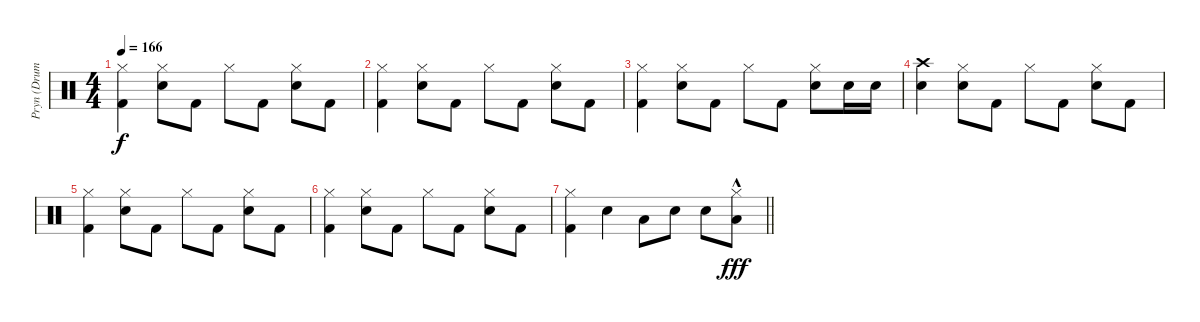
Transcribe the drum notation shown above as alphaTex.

\track ("Pryn (Drums)" "Pryn (Drum") {instrument percussion}
\staff {score}
\articulation defaults
\ts (4 4)
\tempo 166
\clef neutral
\ks c
("Hi-Hat (closed)" "Kick (hit) 2").4{dy f} ("Hi-Hat (closed)" "Snare (hit) 2").8 "Kick (hit) 2".8 "Hi-Hat (closed)".8 "Kick (hit) 2".8 ("Hi-Hat (closed)" "Snare (hit) 2").8 "Kick (hit) 2".8 |
("Hi-Hat (closed)" "Kick (hit) 2").4 ("Hi-Hat (closed)" "Snare (hit) 2").8 "Kick (hit) 2".8 "Hi-Hat (closed)".8 "Kick (hit) 2".8 ("Hi-Hat (closed)" "Snare (hit) 2").8 "Kick (hit) 2".8 |
("Hi-Hat (closed)" "Kick (hit) 2").4 ("Hi-Hat (closed)" "Snare (hit) 2").8 "Kick (hit) 2".8 "Hi-Hat (closed)".8 "Kick (hit) 2".8 ("Snare (hit) 2" "Hi-Hat (closed)").8 "Snare (hit) 2".16 "Snare (hit) 2".16 |
("Crash high (hit)" "Snare (hit) 2").4 ("Snare (hit) 2" "Hi-Hat (closed)").8 "Kick (hit) 2".8 "Hi-Hat (closed)".8 "Kick (hit) 2".8 ("Snare (hit) 2" "Hi-Hat (closed)").8 "Kick (hit) 2".8 |
("Hi-Hat (closed)" "Kick (hit) 2").4 ("Snare (hit) 2" "Hi-Hat (closed)").8 "Kick (hit) 2".8 "Hi-Hat (closed)".8 "Kick (hit) 2".8 ("Snare (hit) 2" "Hi-Hat (closed)").8 "Kick (hit) 2".8 |
("Hi-Hat (closed)" "Kick (hit) 2").4 ("Snare (hit) 2" "Hi-Hat (closed)").8 "Kick (hit) 2".8 "Hi-Hat (closed)".8 "Kick (hit) 2".8 ("Snare (hit) 2" "Hi-Hat (closed)").8 "Kick (hit) 2".8 |
\barLineRight lightlight
("Hi-Hat (closed)" "Kick (hit) 2").4 "Snare (hit) 2".4 "Low Floor Tom (hit)".8 "Snare (hit) 2".8 "Snare (hit) 2".8 ("Hi-Hat (closed)"{hac} "Low Floor Tom (hit)").8{dy fff}
